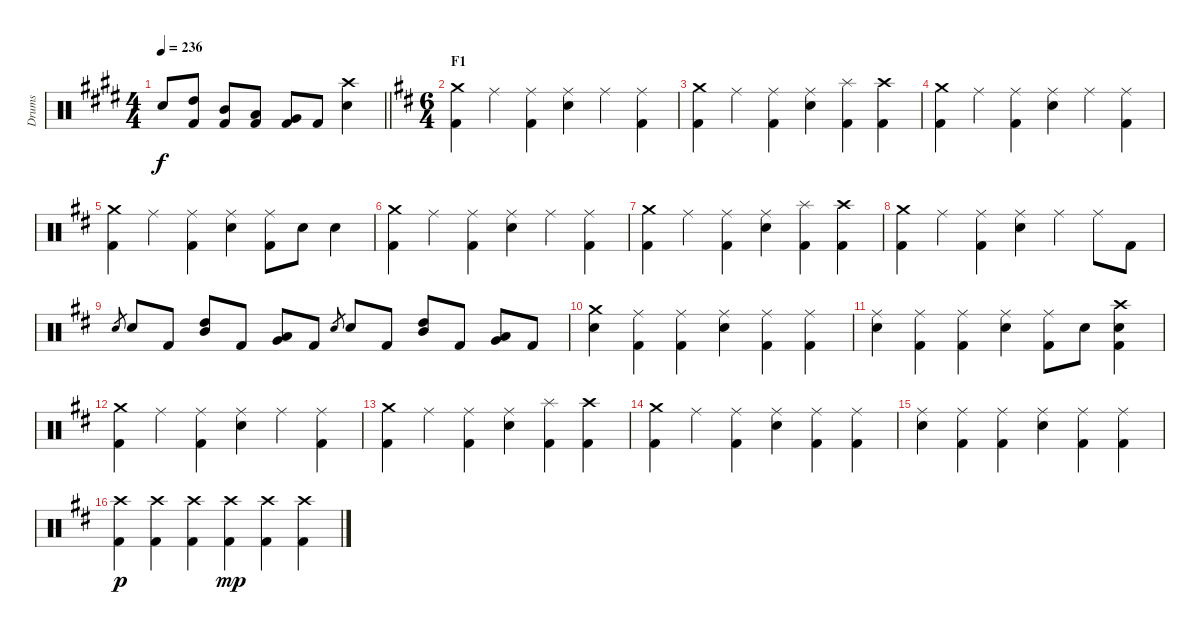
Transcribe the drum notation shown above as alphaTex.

\track ("Drums" "Drums") {instrument percussion}
\staff {score}
\articulation defaults
\ts (4 4)
\tempo 236
\clef neutral
\barLineRight lightlight
\ks c#minor "Snare (hit) 2".8{dy f}
("High Tom (hit)" "Kick (hit) 2").8 ("Mid Tom (hit)" "Kick (hit) 2").8 ("Low Tom (hit)" "Kick (hit) 2").8 ("Very Low Tom (hit)" "Kick (hit) 2").8 "Kick (hit) 2".8 ("Crash high (hit)" "Snare (hit) 2").4 |
\ts (6 4)
\section ("" "F1")
\ks d
("Crash medium (hit)" "Kick (hit) 2").4 "Ride (middle)".4 ("Ride (middle)" "Kick (hit) 2").4 ("Ride (middle)" "Snare (hit) 2").4 "Ride (middle)".4 ("Ride (middle)" "Kick (hit) 2").4 |
("Crash medium (hit)" "Kick (hit) 2").4 "Ride (middle)".4 ("Ride (middle)" "Kick (hit) 2").4 ("Ride (middle)" "Snare (hit) 2").4 ("Splash (hit)" "Kick (hit) 2").4 ("Crash high (hit)" "Kick (hit) 2").4 |
("Crash medium (hit)" "Kick (hit) 2").4 "Ride (middle)".4 ("Ride (middle)" "Kick (hit) 2").4 ("Ride (middle)" "Snare (hit) 2").4 "Ride (middle)".4 ("Ride (middle)" "Kick (hit) 2").4 |
("Crash medium (hit)" "Kick (hit) 2").4 "Ride (middle)".4 ("Ride (middle)" "Kick (hit) 2").4 ("Ride (middle)" "Snare (hit) 2").4 ("Ride (middle)" "Kick (hit) 2").8 "Snare (hit) 2".8 "Snare (hit) 2".4 |
("Crash medium (hit)" "Kick (hit) 2").4 "Ride (middle)".4 ("Ride (middle)" "Kick (hit) 2").4 ("Ride (middle)" "Snare (hit) 2").4 "Ride (middle)".4 ("Ride (middle)" "Kick (hit) 2").4 |
("Crash medium (hit)" "Kick (hit) 2").4 "Ride (middle)".4 ("Ride (middle)" "Kick (hit) 2").4 ("Ride (middle)" "Snare (hit) 2").4 ("Splash (hit)" "Kick (hit) 2").4 ("Crash high (hit)" "Kick (hit) 2").4 |
("Crash medium (hit)" "Kick (hit) 2").4 "Ride (middle)".4 ("Ride (middle)" "Kick (hit) 2").4 ("Ride (middle)" "Snare (hit) 2").4 "Ride (middle)".4 "Ride (middle)".8 "Kick (hit) 2".8 |
"Snare (hit) 2".8{gr} "Snare (hit) 2".8 "Kick (hit) 2".8 ("High Tom (hit)" "Mid Tom (hit)").8 "Kick (hit) 2".8 ("Low Tom (hit)" "Very Low Tom (hit)").8 "Kick (hit) 2".8 "Snare (hit) 2".8{gr} "Snare (hit) 2".8 "Kick (hit) 2".8 ("High Tom (hit)" "Mid Tom (hit)").8 "Kick (hit) 2".8 ("Low Tom (hit)" "Very Low Tom (hit)").8 "Kick (hit) 2".8 |
("Crash medium (hit)" "Snare (hit) 2").4 ("Ride (middle)" "Kick (hit) 2").4 ("Ride (middle)" "Kick (hit) 2").4 ("Ride (middle)" "Snare (hit) 2").4 ("Ride (middle)" "Kick (hit) 2").4 ("Ride (middle)" "Kick (hit) 2").4 |
("Ride (middle)" "Snare (hit) 2").4 ("Ride (middle)" "Kick (hit) 2").4 ("Ride (middle)" "Kick (hit) 2").4 ("Ride (middle)" "Snare (hit) 2").4 ("Ride (middle)" "Kick (hit) 2").8 "Snare (hit) 2".8 ("Crash high (hit)" "Snare (hit) 2" "Kick (hit) 2").4 |
("Crash medium (hit)" "Kick (hit) 2").4 "Ride (middle)".4 ("Ride (middle)" "Kick (hit) 2").4 ("Ride (middle)" "Snare (hit) 2").4 "Ride (middle)".4 ("Ride (middle)" "Kick (hit) 2").4 |
("Crash medium (hit)" "Kick (hit) 2").4 "Ride (middle)".4 ("Ride (middle)" "Kick (hit) 2").4 ("Ride (middle)" "Snare (hit) 2").4 ("Splash (hit)" "Kick (hit) 2").4 ("Crash high (hit)" "Kick (hit) 2").4 |
("Crash medium (hit)" "Kick (hit) 2").4 "Ride (middle)".4 ("Ride (middle)" "Kick (hit) 2").4 ("Ride (middle)" "Snare (hit) 2").4 ("Ride (middle)" "Kick (hit) 2").4 ("Ride (middle)" "Kick (hit) 2").4 |
("Ride (middle)" "Snare (hit) 2").4 ("Ride (middle)" "Kick (hit) 2").4 ("Ride (middle)" "Kick (hit) 2").4 ("Ride (middle)" "Snare (hit) 2").4 ("Ride (middle)" "Kick (hit) 2").4 ("Ride (middle)" "Kick (hit) 2").4 |
("Crash high (hit)" "Kick (hit) 2").4{dy p} ("Crash high (hit)" "Kick (hit) 2").4 ("Crash high (hit)" "Kick (hit) 2").4 ("Crash high (hit)" "Kick (hit) 2").4{dy mp} ("Crash high (hit)" "Kick (hit) 2").4 ("Crash high (hit)" "Kick (hit) 2").4
